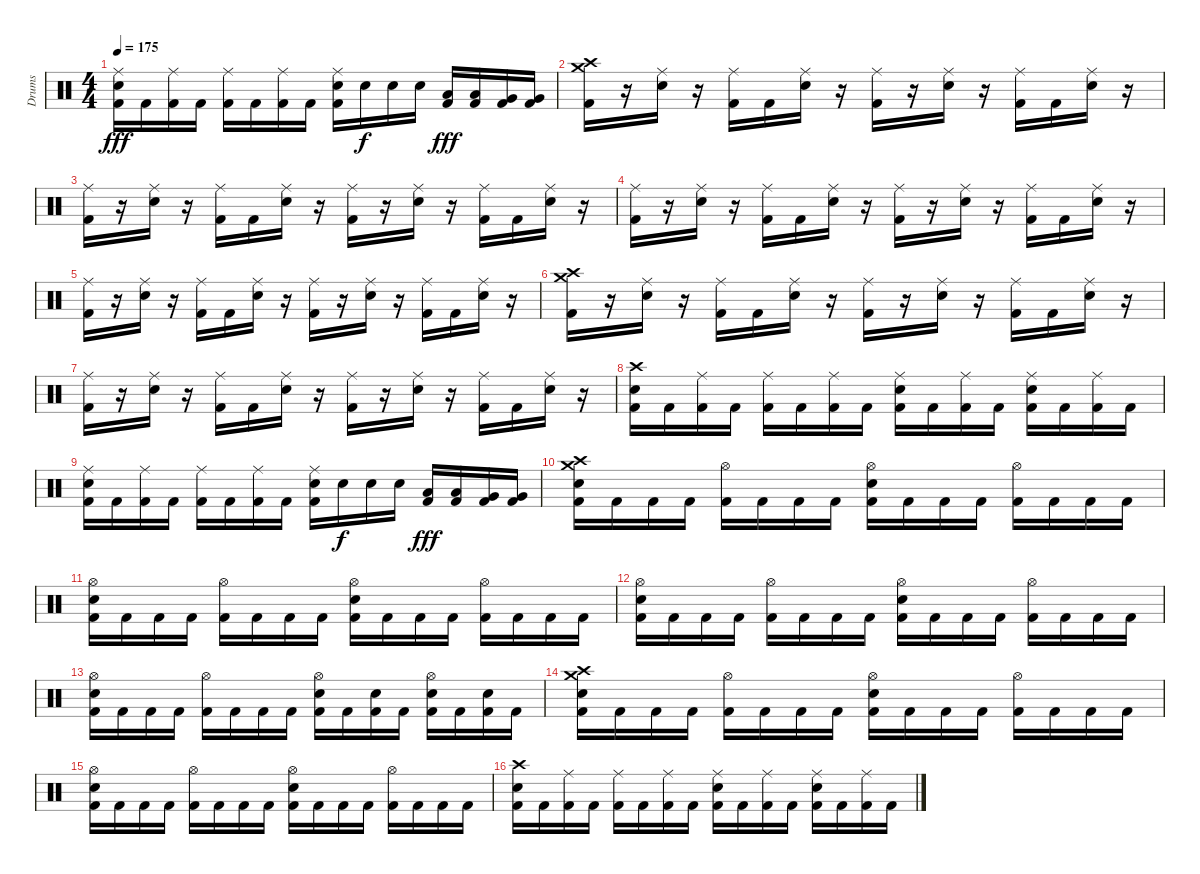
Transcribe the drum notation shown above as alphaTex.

\track ("Drums" "Drums") {instrument percussion}
\staff {score}
\articulation defaults
\ts (4 4)
\tempo 175
\clef neutral
\ks c
("Ride (middle)" "Electric Snare (hit)" "Kick (hit) 2").16{dy fff} "Kick (hit) 2".16 ("Ride (middle)" "Kick (hit) 2").16 "Kick (hit) 2".16 ("Ride (middle)" "Kick (hit) 2").16 "Kick (hit) 2".16 ("Ride (middle)" "Kick (hit) 2").16 "Kick (hit) 2".16 ("Ride (middle)" "Electric Snare (hit)" "Kick (hit) 2").16 "Electric Snare (hit)".16{dy f} "Electric Snare (hit)".16 "Electric Snare (hit)".16 ("Low Tom (hit)" "Kick (hit) 2").16{dy fff} ("Low Tom (hit)" "Kick (hit) 2").16 ("Very Low Tom (hit)" "Kick (hit) 2").16 ("Very Low Tom (hit)" "Kick (hit) 2").16 |
("Crash medium (hit)" "Crash high (hit)" "Kick (hit) 2").16 r.16 ("Ride (middle)" "Electric Snare (hit)").16 r.16 ("Ride (middle)" "Kick (hit) 2").16 "Kick (hit) 2".16 ("Ride (middle)" "Electric Snare (hit)").16 r.16 ("Ride (middle)" "Kick (hit) 2").16 r.16 ("Ride (middle)" "Electric Snare (hit)").16 r.16 ("Ride (middle)" "Kick (hit) 2").16 "Kick (hit) 2".16 ("Ride (middle)" "Electric Snare (hit)").16 r.16 |
("Ride (middle)" "Kick (hit) 2").16 r.16 ("Ride (middle)" "Electric Snare (hit)").16 r.16 ("Ride (middle)" "Kick (hit) 2").16 "Kick (hit) 2".16 ("Ride (middle)" "Electric Snare (hit)").16 r.16 ("Ride (middle)" "Kick (hit) 2").16 r.16 ("Ride (middle)" "Electric Snare (hit)").16 r.16 ("Ride (middle)" "Kick (hit) 2").16 "Kick (hit) 2".16 ("Ride (middle)" "Electric Snare (hit)").16 r.16 |
("Ride (middle)" "Kick (hit) 2").16 r.16 ("Ride (middle)" "Electric Snare (hit)").16 r.16 ("Ride (middle)" "Kick (hit) 2").16 "Kick (hit) 2".16 ("Ride (middle)" "Electric Snare (hit)").16 r.16 ("Ride (middle)" "Kick (hit) 2").16 r.16 ("Ride (middle)" "Electric Snare (hit)").16 r.16 ("Ride (middle)" "Kick (hit) 2").16 "Kick (hit) 2".16 ("Ride (middle)" "Electric Snare (hit)").16 r.16 |
("Ride (middle)" "Kick (hit) 2").16 r.16 ("Ride (middle)" "Electric Snare (hit)").16 r.16 ("Ride (middle)" "Kick (hit) 2").16 "Kick (hit) 2".16 ("Ride (middle)" "Electric Snare (hit)").16 r.16 ("Ride (middle)" "Kick (hit) 2").16 r.16 ("Ride (middle)" "Electric Snare (hit)").16 r.16 ("Ride (middle)" "Kick (hit) 2").16 "Kick (hit) 2".16 ("Ride (middle)" "Electric Snare (hit)").16 r.16 |
("Crash medium (hit)" "Crash high (hit)" "Kick (hit) 2").16 r.16 ("Ride (middle)" "Electric Snare (hit)").16 r.16 ("Ride (middle)" "Kick (hit) 2").16 "Kick (hit) 2".16 ("Ride (middle)" "Electric Snare (hit)").16 r.16 ("Ride (middle)" "Kick (hit) 2").16 r.16 ("Ride (middle)" "Electric Snare (hit)").16 r.16 ("Ride (middle)" "Kick (hit) 2").16 "Kick (hit) 2".16 ("Ride (middle)" "Electric Snare (hit)").16 r.16 |
("Ride (middle)" "Kick (hit) 2").16 r.16 ("Ride (middle)" "Electric Snare (hit)").16 r.16 ("Ride (middle)" "Kick (hit) 2").16 "Kick (hit) 2".16 ("Ride (middle)" "Electric Snare (hit)").16 r.16 ("Ride (middle)" "Kick (hit) 2").16 r.16 ("Ride (middle)" "Electric Snare (hit)").16 r.16 ("Ride (middle)" "Kick (hit) 2").16 "Kick (hit) 2".16 ("Ride (middle)" "Electric Snare (hit)").16 r.16 |
("Crash high (hit)" "Electric Snare (hit)" "Kick (hit) 2").16 "Kick (hit) 2".16 ("Ride (middle)" "Kick (hit) 2").16 "Kick (hit) 2".16 ("Ride (middle)" "Kick (hit) 2").16 "Kick (hit) 2".16 ("Ride (middle)" "Kick (hit) 2").16 "Kick (hit) 2".16 ("Ride (middle)" "Electric Snare (hit)" "Kick (hit) 2").16 "Kick (hit) 2".16 ("Ride (middle)" "Kick (hit) 2").16 "Kick (hit) 2".16 ("Ride (middle)" "Electric Snare (hit)" "Kick (hit) 2").16 "Kick (hit) 2".16 ("Ride (middle)" "Kick (hit) 2").16 "Kick (hit) 2".16 |
("Ride (middle)" "Electric Snare (hit)" "Kick (hit) 2").16 "Kick (hit) 2".16 ("Ride (middle)" "Kick (hit) 2").16 "Kick (hit) 2".16 ("Ride (middle)" "Kick (hit) 2").16 "Kick (hit) 2".16 ("Ride (middle)" "Kick (hit) 2").16 "Kick (hit) 2".16 ("Ride (middle)" "Electric Snare (hit)" "Kick (hit) 2").16 "Electric Snare (hit)".16{dy f} "Electric Snare (hit)".16 "Electric Snare (hit)".16 ("Low Tom (hit)" "Kick (hit) 2").16{dy fff} ("Low Tom (hit)" "Kick (hit) 2").16 ("Very Low Tom (hit)" "Kick (hit) 2").16 ("Very Low Tom (hit)" "Kick (hit) 2").16 |
("Crash medium (hit)" "Crash high (hit)" "Electric Snare (hit)" "Kick (hit) 2").16 "Kick (hit) 2".16 "Kick (hit) 2".16 "Kick (hit) 2".16 ("Hi-Hat (open)" "Kick (hit) 2").16 "Kick (hit) 2".16 "Kick (hit) 2".16 "Kick (hit) 2".16 ("Hi-Hat (open)" "Electric Snare (hit)" "Kick (hit) 2").16 "Kick (hit) 2".16 "Kick (hit) 2".16 "Kick (hit) 2".16 ("Hi-Hat (open)" "Kick (hit) 2").16 "Kick (hit) 2".16 "Kick (hit) 2".16 "Kick (hit) 2".16 |
("Hi-Hat (open)" "Electric Snare (hit)" "Kick (hit) 2").16 "Kick (hit) 2".16 "Kick (hit) 2".16 "Kick (hit) 2".16 ("Hi-Hat (open)" "Kick (hit) 2").16 "Kick (hit) 2".16 "Kick (hit) 2".16 "Kick (hit) 2".16 ("Hi-Hat (open)" "Electric Snare (hit)" "Kick (hit) 2").16 "Kick (hit) 2".16 "Kick (hit) 2".16 "Kick (hit) 2".16 ("Hi-Hat (open)" "Kick (hit) 2").16 "Kick (hit) 2".16 "Kick (hit) 2".16 "Kick (hit) 2".16 |
("Hi-Hat (open)" "Electric Snare (hit)" "Kick (hit) 2").16 "Kick (hit) 2".16 "Kick (hit) 2".16 "Kick (hit) 2".16 ("Hi-Hat (open)" "Kick (hit) 2").16 "Kick (hit) 2".16 "Kick (hit) 2".16 "Kick (hit) 2".16 ("Hi-Hat (open)" "Electric Snare (hit)" "Kick (hit) 2").16 "Kick (hit) 2".16 "Kick (hit) 2".16 "Kick (hit) 2".16 ("Hi-Hat (open)" "Kick (hit) 2").16 "Kick (hit) 2".16 "Kick (hit) 2".16 "Kick (hit) 2".16 |
("Hi-Hat (open)" "Electric Snare (hit)" "Kick (hit) 2").16 "Kick (hit) 2".16 "Kick (hit) 2".16 "Kick (hit) 2".16 ("Hi-Hat (open)" "Kick (hit) 2").16 "Kick (hit) 2".16 "Kick (hit) 2".16 "Kick (hit) 2".16 ("Hi-Hat (open)" "Electric Snare (hit)" "Kick (hit) 2").16 "Kick (hit) 2".16 ("Electric Snare (hit)" "Kick (hit) 2").16 "Kick (hit) 2".16 ("Hi-Hat (open)" "Electric Snare (hit)" "Kick (hit) 2").16 "Kick (hit) 2".16 ("Electric Snare (hit)" "Kick (hit) 2").16 "Kick (hit) 2".16 |
("Crash medium (hit)" "Crash high (hit)" "Electric Snare (hit)" "Kick (hit) 2").16 "Kick (hit) 2".16 "Kick (hit) 2".16 "Kick (hit) 2".16 ("Hi-Hat (open)" "Kick (hit) 2").16 "Kick (hit) 2".16 "Kick (hit) 2".16 "Kick (hit) 2".16 ("Hi-Hat (open)" "Electric Snare (hit)" "Kick (hit) 2").16 "Kick (hit) 2".16 "Kick (hit) 2".16 "Kick (hit) 2".16 ("Hi-Hat (open)" "Kick (hit) 2").16 "Kick (hit) 2".16 "Kick (hit) 2".16 "Kick (hit) 2".16 |
("Hi-Hat (open)" "Electric Snare (hit)" "Kick (hit) 2").16 "Kick (hit) 2".16 "Kick (hit) 2".16 "Kick (hit) 2".16 ("Hi-Hat (open)" "Kick (hit) 2").16 "Kick (hit) 2".16 "Kick (hit) 2".16 "Kick (hit) 2".16 ("Hi-Hat (open)" "Electric Snare (hit)" "Kick (hit) 2").16 "Kick (hit) 2".16 "Kick (hit) 2".16 "Kick (hit) 2".16 ("Hi-Hat (open)" "Kick (hit) 2").16 "Kick (hit) 2".16 "Kick (hit) 2".16 "Kick (hit) 2".16 |
("Crash high (hit)" "Electric Snare (hit)" "Kick (hit) 2").16 "Kick (hit) 2".16 ("Ride (middle)" "Kick (hit) 2").16 "Kick (hit) 2".16 ("Ride (middle)" "Kick (hit) 2").16 "Kick (hit) 2".16 ("Ride (middle)" "Kick (hit) 2").16 "Kick (hit) 2".16 ("Ride (middle)" "Electric Snare (hit)" "Kick (hit) 2").16 "Kick (hit) 2".16 ("Ride (middle)" "Kick (hit) 2").16 "Kick (hit) 2".16 ("Ride (middle)" "Electric Snare (hit)" "Kick (hit) 2").16 "Kick (hit) 2".16 ("Ride (middle)" "Kick (hit) 2").16 "Kick (hit) 2".16
